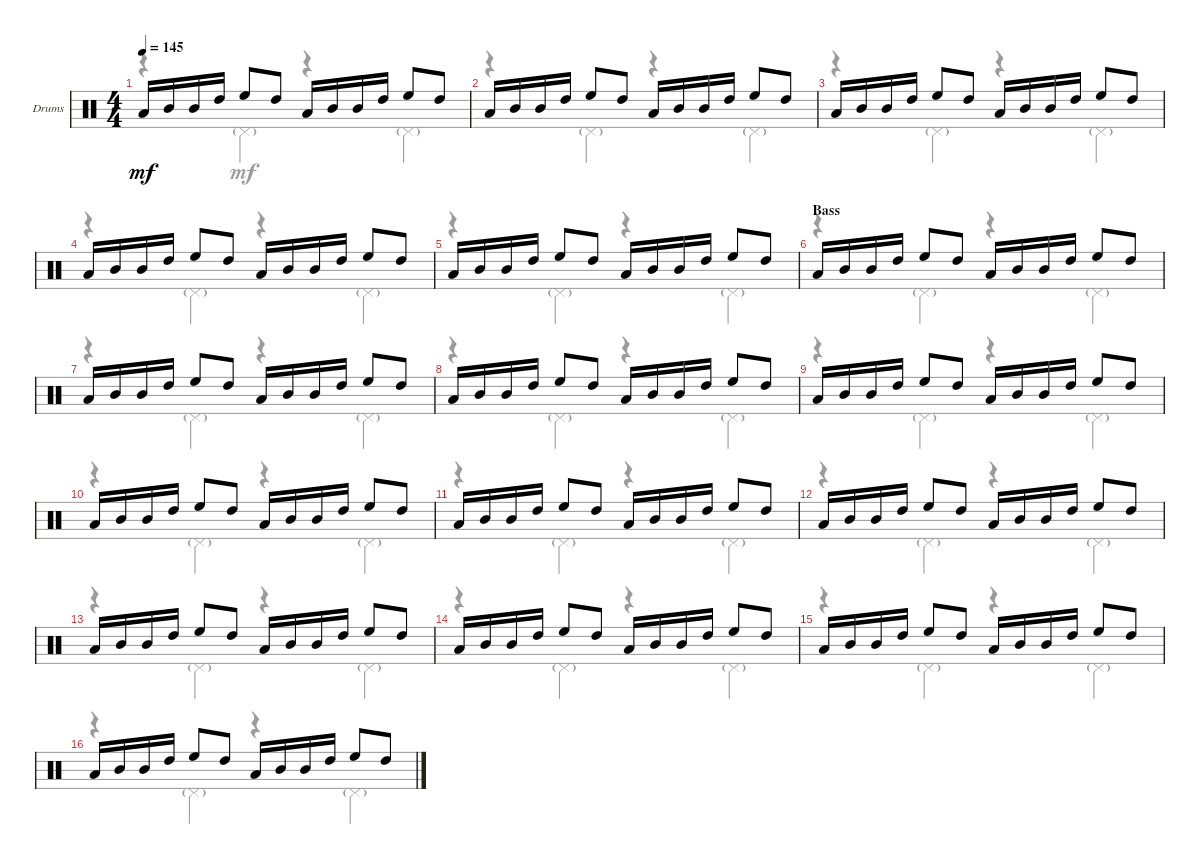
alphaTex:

\defaultSystemsLayout 4
\bracketExtendMode groupsimilarinstruments
\firstSystemTrackNameOrientation horizontal
\otherSystemsTrackNameOrientation horizontal
\track ("Drumkit" "Drums") {instrument percussion}
\staff {score}
\articulation defaults
\voice
\ts (4 4)
\tempo 145
\clef neutral
\ks c "Low Tom (hit)".16{dy mf} "Mid Tom (hit)".16 "Mid Tom (hit)".16 "High Tom (hit)".16 "High Floor Tom (hit)".8 "High Tom (hit)".8 "Low Tom (hit)".16 "Mid Tom (hit)".16 "Mid Tom (hit)".16 "High Tom (hit)".16 "High Floor Tom (hit)".8 "High Tom (hit)".8
|
"Low Tom (hit)".16 "Mid Tom (hit)".16 "Mid Tom (hit)".16 "High Tom (hit)".16 "High Floor Tom (hit)".8 "High Tom (hit)".8 "Low Tom (hit)".16 "Mid Tom (hit)".16 "Mid Tom (hit)".16 "High Tom (hit)".16 "High Floor Tom (hit)".8 "High Tom (hit)".8 |
"Low Tom (hit)".16 "Mid Tom (hit)".16 "Mid Tom (hit)".16 "High Tom (hit)".16 "High Floor Tom (hit)".8 "High Tom (hit)".8 "Low Tom (hit)".16 "Mid Tom (hit)".16 "Mid Tom (hit)".16 "High Tom (hit)".16 "High Floor Tom (hit)".8 "High Tom (hit)".8 |
"Low Tom (hit)".16 "Mid Tom (hit)".16 "Mid Tom (hit)".16 "High Tom (hit)".16 "High Floor Tom (hit)".8 "High Tom (hit)".8 "Low Tom (hit)".16 "Mid Tom (hit)".16 "Mid Tom (hit)".16 "High Tom (hit)".16 "High Floor Tom (hit)".8 "High Tom (hit)".8 |
"Low Tom (hit)".16 "Mid Tom (hit)".16 "Mid Tom (hit)".16 "High Tom (hit)".16 "High Floor Tom (hit)".8 "High Tom (hit)".8 "Low Tom (hit)".16 "Mid Tom (hit)".16 "Mid Tom (hit)".16 "High Tom (hit)".16 "High Floor Tom (hit)".8 "High Tom (hit)".8 |
\section ("" "Bass")
"Low Tom (hit)".16 "Mid Tom (hit)".16 "Mid Tom (hit)".16 "High Tom (hit)".16 "High Floor Tom (hit)".8 "High Tom (hit)".8 "Low Tom (hit)".16 "Mid Tom (hit)".16 "Mid Tom (hit)".16 "High Tom (hit)".16 "High Floor Tom (hit)".8 "High Tom (hit)".8 |
"Low Tom (hit)".16 "Mid Tom (hit)".16 "Mid Tom (hit)".16 "High Tom (hit)".16 "High Floor Tom (hit)".8 "High Tom (hit)".8 "Low Tom (hit)".16 "Mid Tom (hit)".16 "Mid Tom (hit)".16 "High Tom (hit)".16 "High Floor Tom (hit)".8 "High Tom (hit)".8 |
"Low Tom (hit)".16 "Mid Tom (hit)".16 "Mid Tom (hit)".16 "High Tom (hit)".16 "High Floor Tom (hit)".8 "High Tom (hit)".8 "Low Tom (hit)".16 "Mid Tom (hit)".16 "Mid Tom (hit)".16 "High Tom (hit)".16 "High Floor Tom (hit)".8 "High Tom (hit)".8 |
"Low Tom (hit)".16 "Mid Tom (hit)".16 "Mid Tom (hit)".16 "High Tom (hit)".16 "High Floor Tom (hit)".8 "High Tom (hit)".8 "Low Tom (hit)".16 "Mid Tom (hit)".16 "Mid Tom (hit)".16 "High Tom (hit)".16 "High Floor Tom (hit)".8 "High Tom (hit)".8 |
"Low Tom (hit)".16 "Mid Tom (hit)".16 "Mid Tom (hit)".16 "High Tom (hit)".16 "High Floor Tom (hit)".8 "High Tom (hit)".8 "Low Tom (hit)".16 "Mid Tom (hit)".16 "Mid Tom (hit)".16 "High Tom (hit)".16 "High Floor Tom (hit)".8 "High Tom (hit)".8 |
"Low Tom (hit)".16 "Mid Tom (hit)".16 "Mid Tom (hit)".16 "High Tom (hit)".16 "High Floor Tom (hit)".8 "High Tom (hit)".8 "Low Tom (hit)".16 "Mid Tom (hit)".16 "Mid Tom (hit)".16 "High Tom (hit)".16 "High Floor Tom (hit)".8 "High Tom (hit)".8 |
"Low Tom (hit)".16 "Mid Tom (hit)".16 "Mid Tom (hit)".16 "High Tom (hit)".16 "High Floor Tom (hit)".8 "High Tom (hit)".8 "Low Tom (hit)".16 "Mid Tom (hit)".16 "Mid Tom (hit)".16 "High Tom (hit)".16 "High Floor Tom (hit)".8 "High Tom (hit)".8 |
"Low Tom (hit)".16 "Mid Tom (hit)".16 "Mid Tom (hit)".16 "High Tom (hit)".16 "High Floor Tom (hit)".8 "High Tom (hit)".8 "Low Tom (hit)".16 "Mid Tom (hit)".16 "Mid Tom (hit)".16 "High Tom (hit)".16 "High Floor Tom (hit)".8 "High Tom (hit)".8 |
"Low Tom (hit)".16 "Mid Tom (hit)".16 "Mid Tom (hit)".16 "High Tom (hit)".16 "High Floor Tom (hit)".8 "High Tom (hit)".8 "Low Tom (hit)".16 "Mid Tom (hit)".16 "Mid Tom (hit)".16 "High Tom (hit)".16 "High Floor Tom (hit)".8 "High Tom (hit)".8 |
"Low Tom (hit)".16 "Mid Tom (hit)".16 "Mid Tom (hit)".16 "High Tom (hit)".16 "High Floor Tom (hit)".8 "High Tom (hit)".8 "Low Tom (hit)".16 "Mid Tom (hit)".16 "Mid Tom (hit)".16 "High Tom (hit)".16 "High Floor Tom (hit)".8 "High Tom (hit)".8 |
"Low Tom (hit)".16 "Mid Tom (hit)".16 "Mid Tom (hit)".16 "High Tom (hit)".16 "High Floor Tom (hit)".8 "High Tom (hit)".8 "Low Tom (hit)".16 "Mid Tom (hit)".16 "Mid Tom (hit)".16 "High Tom (hit)".16 "High Floor Tom (hit)".8 "High Tom (hit)".8
\voice
\clef neutral
\ottava regular
\simile none
\ks c
r.4{dy mf} "Pedal Hi-Hat (hit)"{g}.4 r.4 "Pedal Hi-Hat (hit)"{g}.4 |
r.4 "Pedal Hi-Hat (hit)"{g}.4 r.4 "Pedal Hi-Hat (hit)"{g}.4 |
r.4 "Pedal Hi-Hat (hit)"{g}.4 r.4 "Pedal Hi-Hat (hit)"{g}.4 |
r.4 "Pedal Hi-Hat (hit)"{g}.4 r.4 "Pedal Hi-Hat (hit)"{g}.4 |
r.4 "Pedal Hi-Hat (hit)"{g}.4 r.4 "Pedal Hi-Hat (hit)"{g}.4 |
r.4 "Pedal Hi-Hat (hit)"{g}.4 r.4 "Pedal Hi-Hat (hit)"{g}.4 |
r.4 "Pedal Hi-Hat (hit)"{g}.4 r.4 "Pedal Hi-Hat (hit)"{g}.4 |
r.4 "Pedal Hi-Hat (hit)"{g}.4 r.4 "Pedal Hi-Hat (hit)"{g}.4 |
r.4 "Pedal Hi-Hat (hit)"{g}.4 r.4 "Pedal Hi-Hat (hit)"{g}.4 |
r.4 "Pedal Hi-Hat (hit)"{g}.4 r.4 "Pedal Hi-Hat (hit)"{g}.4 |
r.4 "Pedal Hi-Hat (hit)"{g}.4 r.4 "Pedal Hi-Hat (hit)"{g}.4 |
r.4 "Pedal Hi-Hat (hit)"{g}.4 r.4 "Pedal Hi-Hat (hit)"{g}.4 |
r.4 "Pedal Hi-Hat (hit)"{g}.4 r.4 "Pedal Hi-Hat (hit)"{g}.4 |
r.4 "Pedal Hi-Hat (hit)"{g}.4 r.4 "Pedal Hi-Hat (hit)"{g}.4 |
r.4 "Pedal Hi-Hat (hit)"{g}.4 r.4 "Pedal Hi-Hat (hit)"{g}.4 |
r.4 "Pedal Hi-Hat (hit)"{g}.4 r.4 "Pedal Hi-Hat (hit)"{g}.4
